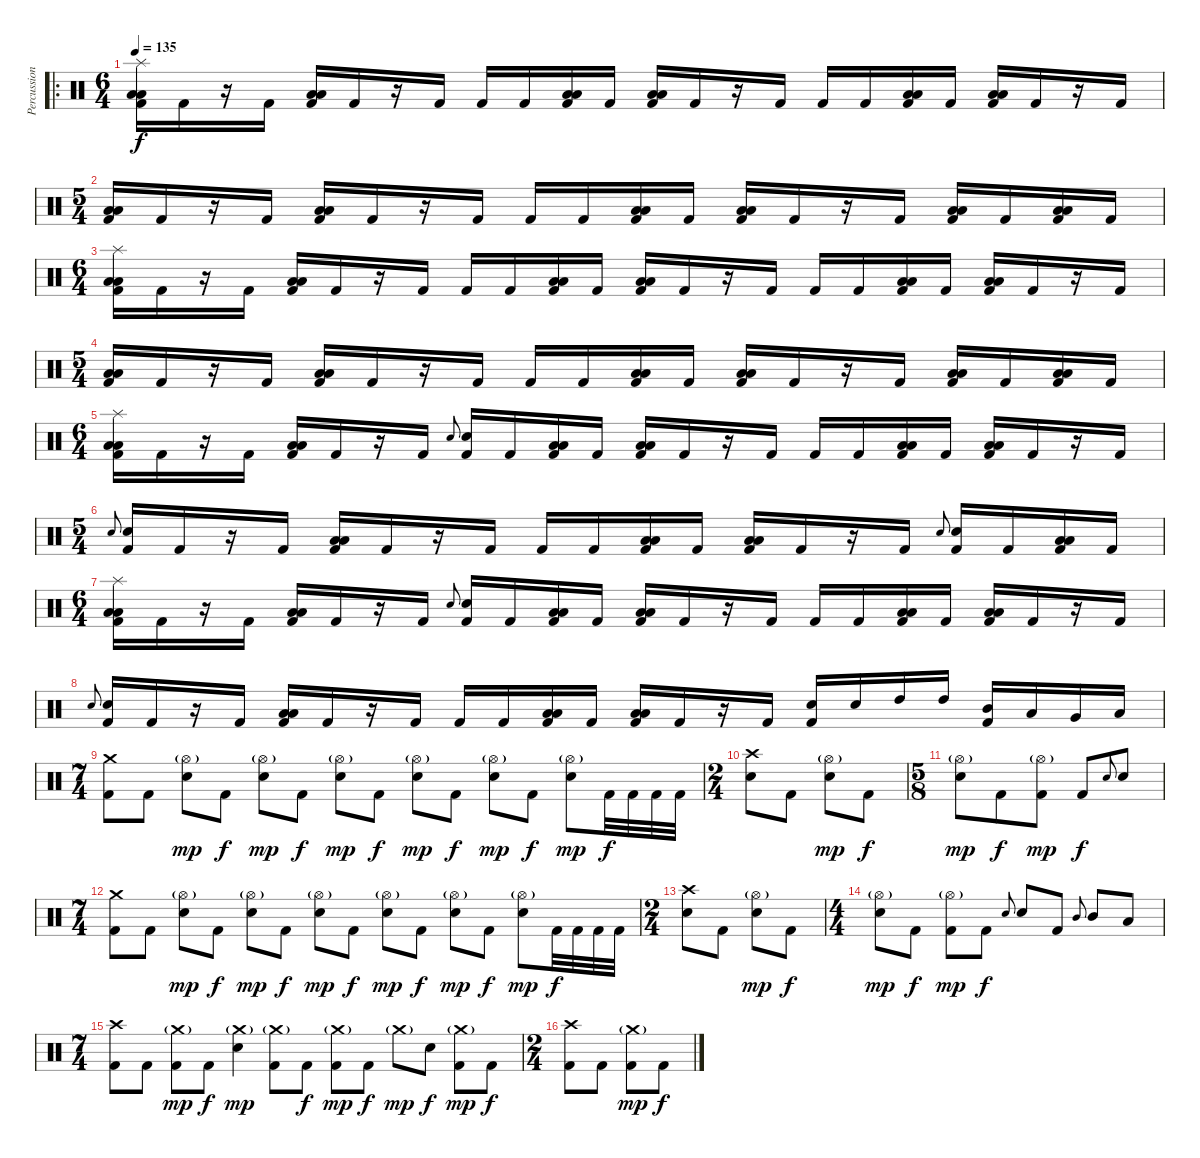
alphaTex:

\track ("Percussion" "Percussion") {instrument percussion}
\staff {score}
\articulation defaults
\ro
\ts (6 4)
\tempo 135
\clef neutral
\ks c
("Splash (hit)" "Low Floor Tom (hit)" "Low Floor Tom (hit)" "Kick (hit) 2").16{dy f} "Kick (hit) 2".16 r.16 "Kick (hit) 2".16 ("Low Floor Tom (hit)" "Low Floor Tom (hit)" "Kick (hit) 2").16 "Kick (hit) 2".16 r.16 "Kick (hit) 2".16 "Kick (hit) 2".16 "Kick (hit) 2".16 ("Low Floor Tom (hit)" "Low Floor Tom (hit)" "Kick (hit) 2").16 "Kick (hit) 2".16 ("Low Floor Tom (hit)" "Low Floor Tom (hit)" "Kick (hit) 2").16 "Kick (hit) 2".16 r.16 "Kick (hit) 2".16 "Kick (hit) 2".16 "Kick (hit) 2".16 ("Low Floor Tom (hit)" "Low Floor Tom (hit)" "Kick (hit) 2").16 "Kick (hit) 2".16 ("Low Floor Tom (hit)" "Low Floor Tom (hit)" "Kick (hit) 2").16 "Kick (hit) 2".16 r.16 "Kick (hit) 2".16 |
\ts (5 4)
("Low Floor Tom (hit)" "Low Floor Tom (hit)" "Kick (hit) 2").16 "Kick (hit) 2".16 r.16 "Kick (hit) 2".16 ("Low Floor Tom (hit)" "Low Floor Tom (hit)" "Kick (hit) 2").16 "Kick (hit) 2".16 r.16 "Kick (hit) 2".16 "Kick (hit) 2".16 "Kick (hit) 2".16 ("Low Floor Tom (hit)" "Low Floor Tom (hit)" "Kick (hit) 2").16 "Kick (hit) 2".16 ("Low Floor Tom (hit)" "Low Floor Tom (hit)" "Kick (hit) 2").16 "Kick (hit) 2".16 r.16 "Kick (hit) 2".16 ("Low Floor Tom (hit)" "Low Floor Tom (hit)" "Kick (hit) 2").16 "Kick (hit) 2".16 ("Low Floor Tom (hit)" "Low Floor Tom (hit)" "Kick (hit) 2").16 "Kick (hit) 2".16 |
\ts (6 4)
("Splash (hit)" "Low Floor Tom (hit)" "Low Floor Tom (hit)" "Kick (hit) 2").16 "Kick (hit) 2".16 r.16 "Kick (hit) 2".16 ("Low Floor Tom (hit)" "Low Floor Tom (hit)" "Kick (hit) 2").16 "Kick (hit) 2".16 r.16 "Kick (hit) 2".16 "Kick (hit) 2".16 "Kick (hit) 2".16 ("Low Floor Tom (hit)" "Low Floor Tom (hit)" "Kick (hit) 2").16 "Kick (hit) 2".16 ("Low Floor Tom (hit)" "Low Floor Tom (hit)" "Kick (hit) 2").16 "Kick (hit) 2".16 r.16 "Kick (hit) 2".16 "Kick (hit) 2".16 "Kick (hit) 2".16 ("Low Floor Tom (hit)" "Low Floor Tom (hit)" "Kick (hit) 2").16 "Kick (hit) 2".16 ("Low Floor Tom (hit)" "Low Floor Tom (hit)" "Kick (hit) 2").16 "Kick (hit) 2".16 r.16 "Kick (hit) 2".16 |
\ts (5 4)
("Low Floor Tom (hit)" "Low Floor Tom (hit)" "Kick (hit) 2").16 "Kick (hit) 2".16 r.16 "Kick (hit) 2".16 ("Low Floor Tom (hit)" "Low Floor Tom (hit)" "Kick (hit) 2").16 "Kick (hit) 2".16 r.16 "Kick (hit) 2".16 "Kick (hit) 2".16 "Kick (hit) 2".16 ("Low Floor Tom (hit)" "Low Floor Tom (hit)" "Kick (hit) 2").16 "Kick (hit) 2".16 ("Low Floor Tom (hit)" "Low Floor Tom (hit)" "Kick (hit) 2").16 "Kick (hit) 2".16 r.16 "Kick (hit) 2".16 ("Low Floor Tom (hit)" "Low Floor Tom (hit)" "Kick (hit) 2").16 "Kick (hit) 2".16 ("Low Floor Tom (hit)" "Low Floor Tom (hit)" "Kick (hit) 2").16 "Kick (hit) 2".16 |
\ts (6 4)
("Splash (hit)" "Low Floor Tom (hit)" "Low Floor Tom (hit)" "Kick (hit) 2").16 "Kick (hit) 2".16 r.16 "Kick (hit) 2".16 ("Low Floor Tom (hit)" "Low Floor Tom (hit)" "Kick (hit) 2").16 "Kick (hit) 2".16 r.16 "Kick (hit) 2".16 "Electric Snare (hit)".8{gr onbeat} ("Electric Snare (hit)" "Kick (hit) 2").16 "Kick (hit) 2".16 ("Low Floor Tom (hit)" "Low Floor Tom (hit)" "Kick (hit) 2").16 "Kick (hit) 2".16 ("Low Floor Tom (hit)" "Low Floor Tom (hit)" "Kick (hit) 2").16 "Kick (hit) 2".16 r.16 "Kick (hit) 2".16 "Kick (hit) 2".16 "Kick (hit) 2".16 ("Low Floor Tom (hit)" "Low Floor Tom (hit)" "Kick (hit) 2").16 "Kick (hit) 2".16 ("Low Floor Tom (hit)" "Low Floor Tom (hit)" "Kick (hit) 2").16 "Kick (hit) 2".16 r.16 "Kick (hit) 2".16 |
\ts (5 4)
"Electric Snare (hit)".8{gr onbeat} ("Electric Snare (hit)" "Kick (hit) 2").16 "Kick (hit) 2".16 r.16 "Kick (hit) 2".16 ("Low Floor Tom (hit)" "Low Floor Tom (hit)" "Kick (hit) 2").16 "Kick (hit) 2".16 r.16 "Kick (hit) 2".16 "Kick (hit) 2".16 "Kick (hit) 2".16 ("Low Floor Tom (hit)" "Low Floor Tom (hit)" "Kick (hit) 2").16 "Kick (hit) 2".16 ("Low Floor Tom (hit)" "Low Floor Tom (hit)" "Kick (hit) 2").16 "Kick (hit) 2".16 r.16 "Kick (hit) 2".16 "Electric Snare (hit)".8{gr onbeat} ("Electric Snare (hit)" "Kick (hit) 2").16 "Kick (hit) 2".16 ("Low Floor Tom (hit)" "Low Floor Tom (hit)" "Kick (hit) 2").16 "Kick (hit) 2".16 |
\ts (6 4)
("Splash (hit)" "Low Floor Tom (hit)" "Low Floor Tom (hit)" "Kick (hit) 2").16 "Kick (hit) 2".16 r.16 "Kick (hit) 2".16 ("Low Floor Tom (hit)" "Low Floor Tom (hit)" "Kick (hit) 2").16 "Kick (hit) 2".16 r.16 "Kick (hit) 2".16 "Electric Snare (hit)".8{gr onbeat} ("Electric Snare (hit)" "Kick (hit) 2").16 "Kick (hit) 2".16 ("Low Floor Tom (hit)" "Low Floor Tom (hit)" "Kick (hit) 2").16 "Kick (hit) 2".16 ("Low Floor Tom (hit)" "Low Floor Tom (hit)" "Kick (hit) 2").16 "Kick (hit) 2".16 r.16 "Kick (hit) 2".16 "Kick (hit) 2".16 "Kick (hit) 2".16 ("Low Floor Tom (hit)" "Low Floor Tom (hit)" "Kick (hit) 2").16 "Kick (hit) 2".16 ("Low Floor Tom (hit)" "Low Floor Tom (hit)" "Kick (hit) 2").16 "Kick (hit) 2".16 r.16 "Kick (hit) 2".16 |
"Electric Snare (hit)".8{gr onbeat} ("Electric Snare (hit)" "Kick (hit) 2").16 "Kick (hit) 2".16 r.16 "Kick (hit) 2".16 ("Low Floor Tom (hit)" "Low Floor Tom (hit)" "Kick (hit) 2").16 "Kick (hit) 2".16 r.16 "Kick (hit) 2".16 "Kick (hit) 2".16 "Kick (hit) 2".16 ("Low Floor Tom (hit)" "Low Floor Tom (hit)" "Kick (hit) 2").16 "Kick (hit) 2".16 ("Low Floor Tom (hit)" "Low Floor Tom (hit)" "Kick (hit) 2").16 "Kick (hit) 2".16 r.16 "Kick (hit) 2".16 ("Electric Snare (hit)" "Kick (hit) 2").16 "Electric Snare (hit)".16 "High Tom (hit)".16 "High Tom (hit)".16 ("Mid Tom (hit)" "Kick (hit) 2").16 "Low Tom (hit)".16 "Very Low Tom (hit)".16 "Low Floor Tom (hit)".16 |
\ts (7 4)
("Crash medium (hit)" "Kick (hit) 2").8 "Kick (hit) 2".8 ("Hi-Hat (open)"{g} "Electric Snare (hit)").8{dy mp} "Kick (hit) 2".8{dy f} ("Hi-Hat (open)"{g} "Electric Snare (hit)").8{dy mp} "Kick (hit) 2".8{dy f} ("Hi-Hat (open)"{g} "Electric Snare (hit)").8{dy mp} "Kick (hit) 2".8{dy f} ("Hi-Hat (open)"{g} "Electric Snare (hit)").8{dy mp} "Kick (hit) 2".8{dy f} ("Hi-Hat (open)"{g} "Electric Snare (hit)").8{dy mp} "Kick (hit) 2".8{dy f} ("Hi-Hat (open)"{g} "Electric Snare (hit)").8{dy mp} "Kick (hit) 2".32{dy f} "Kick (hit) 2".32 "Kick (hit) 2".32 "Kick (hit) 2".32 |
\ts (2 4)
("Crash high (hit)" "Electric Snare (hit)").8 "Kick (hit) 2".8 ("Hi-Hat (open)"{g} "Electric Snare (hit)").8{dy mp} "Kick (hit) 2".8{dy f} |
\ts (5 8)
("Hi-Hat (open)"{g} "Electric Snare (hit)").8{dy mp} "Kick (hit) 2".8{dy f} ("Hi-Hat (open)"{g} "Kick (hit) 2").8{dy mp} "Kick (hit) 2".8{dy f} "Electric Snare (hit)".8{gr onbeat} "Electric Snare (hit)".8 |
\ts (7 4)
("Crash medium (hit)" "Kick (hit) 2").8 "Kick (hit) 2".8 ("Hi-Hat (open)"{g} "Electric Snare (hit)").8{dy mp} "Kick (hit) 2".8{dy f} ("Hi-Hat (open)"{g} "Electric Snare (hit)").8{dy mp} "Kick (hit) 2".8{dy f} ("Hi-Hat (open)"{g} "Electric Snare (hit)").8{dy mp} "Kick (hit) 2".8{dy f} ("Hi-Hat (open)"{g} "Electric Snare (hit)").8{dy mp} "Kick (hit) 2".8{dy f} ("Hi-Hat (open)"{g} "Electric Snare (hit)").8{dy mp} "Kick (hit) 2".8{dy f} ("Hi-Hat (open)"{g} "Electric Snare (hit)").8{dy mp} "Kick (hit) 2".32{dy f} "Kick (hit) 2".32 "Kick (hit) 2".32 "Kick (hit) 2".32 |
\ts (2 4)
("Crash high (hit)" "Electric Snare (hit)").8 "Kick (hit) 2".8 ("Hi-Hat (open)"{g} "Electric Snare (hit)").8{dy mp} "Kick (hit) 2".8{dy f} |
\ts (4 4)
("Hi-Hat (open)"{g} "Electric Snare (hit)").8{dy mp} "Kick (hit) 2".8{dy f} ("Hi-Hat (open)"{g} "Kick (hit) 2").8{dy mp} "Kick (hit) 2".8{dy f} "Electric Snare (hit)".8{gr onbeat} "Electric Snare (hit)".8 "Kick (hit) 2".8 "Mid Tom (hit)".8{gr onbeat} "Mid Tom (hit)".8 "Low Tom (hit)".8 |
\ts (7 4)
("Crash high (hit)" "Kick (hit) 2").8 "Kick (hit) 2".8 ("Crash medium (hit)"{g} "Kick (hit) 2").8{dy mp} "Kick (hit) 2".8{dy f} ("Crash medium (hit)"{g} "Electric Snare (hit)").4{dy mp} ("Crash medium (hit)"{g} "Kick (hit) 2").8 "Kick (hit) 2".8{dy f} ("Crash medium (hit)"{g} "Kick (hit) 2").8{dy mp} "Kick (hit) 2".8{dy f} "Crash medium (hit)"{g}.8{dy mp} "Electric Snare (hit)".8{dy f} ("Crash medium (hit)"{g} "Kick (hit) 2").8{dy mp} "Kick (hit) 2".8{dy f} |
\ts (2 4)
("Crash high (hit)" "Kick (hit) 2").8 "Kick (hit) 2".8 ("Crash medium (hit)"{g} "Kick (hit) 2").8{dy mp} "Kick (hit) 2".8{dy f}
